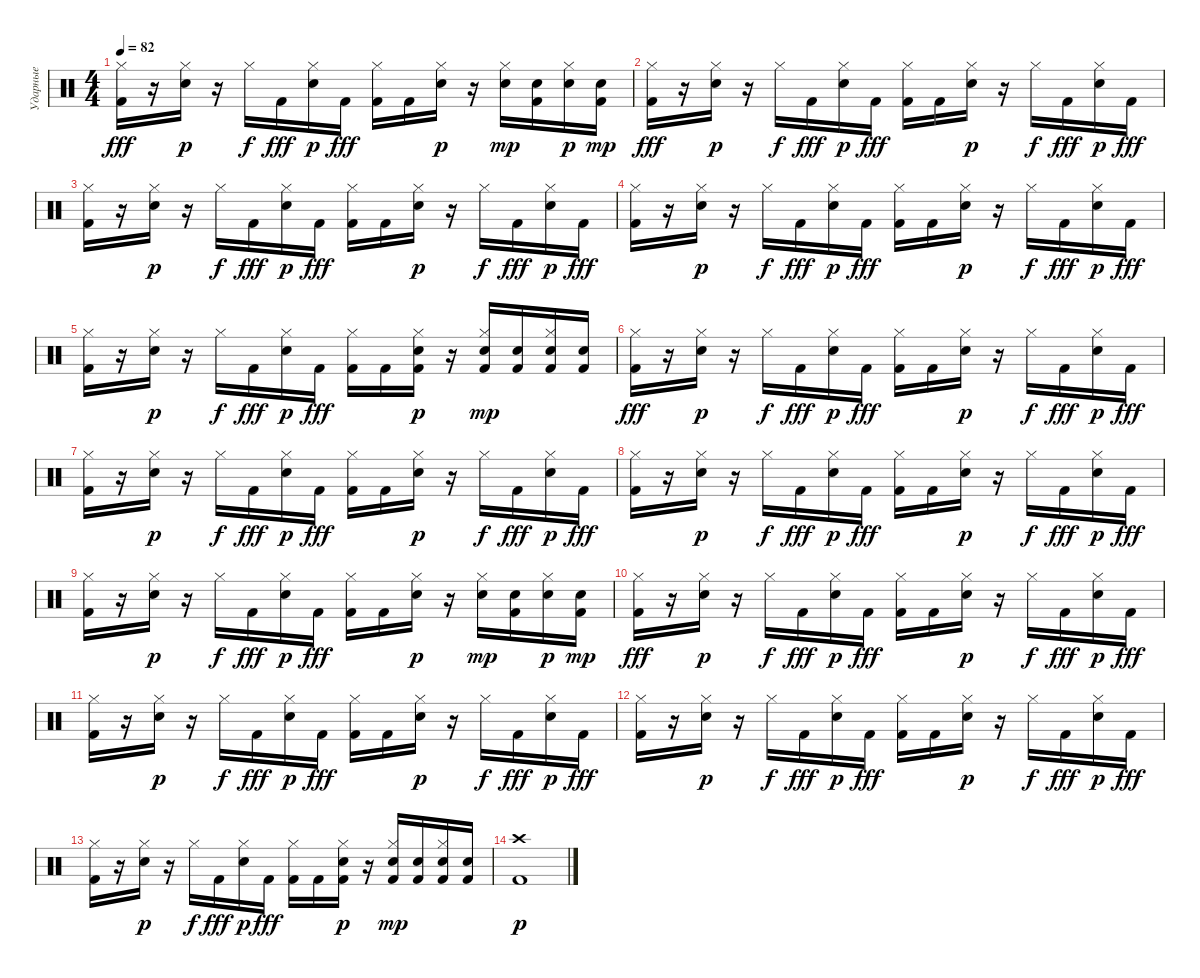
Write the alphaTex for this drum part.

\track ("Ударные" "Ударные") {instrument percussion}
\staff {score}
\articulation defaults
\ts (4 4)
\tempo 82
\clef neutral
\ks c
("Kick (hit) 2" "Hi-Hat (closed)").16{dy fff} r.16 ("Hi-Hat (closed)" "Electric Snare (hit)").16{dy p} r.16 "Hi-Hat (closed)".16{dy f} "Kick (hit) 2".16{dy fff} ("Hi-Hat (closed)" "Electric Snare (hit)").16{dy p} "Kick (hit) 2".16{dy fff} ("Kick (hit) 2" "Hi-Hat (closed)").16 "Kick (hit) 2".16 ("Hi-Hat (closed)" "Electric Snare (hit)").16{dy p} r.16 ("Hi-Hat (closed)" "Electric Snare (hit)").16{dy mp} ("Kick (hit) 2" "Electric Snare (hit)").16 ("Hi-Hat (closed)" "Electric Snare (hit)").16{dy p} ("Kick (hit) 2" "Electric Snare (hit)").16{dy mp} |
("Kick (hit) 2" "Hi-Hat (closed)").16{dy fff} r.16 ("Hi-Hat (closed)" "Electric Snare (hit)").16{dy p} r.16 "Hi-Hat (closed)".16{dy f} "Kick (hit) 2".16{dy fff} ("Hi-Hat (closed)" "Electric Snare (hit)").16{dy p} "Kick (hit) 2".16{dy fff} ("Kick (hit) 2" "Hi-Hat (closed)").16 "Kick (hit) 2".16 ("Hi-Hat (closed)" "Electric Snare (hit)").16{dy p} r.16 "Hi-Hat (closed)".16{dy f} "Kick (hit) 2".16{dy fff} ("Hi-Hat (closed)" "Electric Snare (hit)").16{dy p} "Kick (hit) 2".16{dy fff} |
("Kick (hit) 2" "Hi-Hat (closed)").16 r.16 ("Hi-Hat (closed)" "Electric Snare (hit)").16{dy p} r.16 "Hi-Hat (closed)".16{dy f} "Kick (hit) 2".16{dy fff} ("Hi-Hat (closed)" "Electric Snare (hit)").16{dy p} "Kick (hit) 2".16{dy fff} ("Kick (hit) 2" "Hi-Hat (closed)").16 "Kick (hit) 2".16 ("Hi-Hat (closed)" "Electric Snare (hit)").16{dy p} r.16 "Hi-Hat (closed)".16{dy f} "Kick (hit) 2".16{dy fff} ("Hi-Hat (closed)" "Electric Snare (hit)").16{dy p} "Kick (hit) 2".16{dy fff} |
("Kick (hit) 2" "Hi-Hat (closed)").16 r.16 ("Hi-Hat (closed)" "Electric Snare (hit)").16{dy p} r.16 "Hi-Hat (closed)".16{dy f} "Kick (hit) 2".16{dy fff} ("Hi-Hat (closed)" "Electric Snare (hit)").16{dy p} "Kick (hit) 2".16{dy fff} ("Kick (hit) 2" "Hi-Hat (closed)").16 "Kick (hit) 2".16 ("Hi-Hat (closed)" "Electric Snare (hit)").16{dy p} r.16 "Hi-Hat (closed)".16{dy f} "Kick (hit) 2".16{dy fff} ("Hi-Hat (closed)" "Electric Snare (hit)").16{dy p} "Kick (hit) 2".16{dy fff} |
("Kick (hit) 2" "Hi-Hat (closed)").16 r.16 ("Hi-Hat (closed)" "Electric Snare (hit)").16{dy p} r.16 "Hi-Hat (closed)".16{dy f} "Kick (hit) 2".16{dy fff} ("Hi-Hat (closed)" "Electric Snare (hit)").16{dy p} "Kick (hit) 2".16{dy fff} ("Kick (hit) 2" "Hi-Hat (closed)").16 "Kick (hit) 2".16 ("Kick (hit) 2" "Hi-Hat (closed)" "Electric Snare (hit)").16{dy p} r.16 ("Kick (hit) 2" "Hi-Hat (closed)" "Electric Snare (hit)").16{dy mp} ("Kick (hit) 2" "Electric Snare (hit)").16 ("Kick (hit) 2" "Hi-Hat (closed)" "Electric Snare (hit)").16 ("Kick (hit) 2" "Electric Snare (hit)").16 |
("Kick (hit) 2" "Hi-Hat (closed)").16{dy fff} r.16 ("Hi-Hat (closed)" "Electric Snare (hit)").16{dy p} r.16 "Hi-Hat (closed)".16{dy f} "Kick (hit) 2".16{dy fff} ("Hi-Hat (closed)" "Electric Snare (hit)").16{dy p} "Kick (hit) 2".16{dy fff} ("Kick (hit) 2" "Hi-Hat (closed)").16 "Kick (hit) 2".16 ("Hi-Hat (closed)" "Electric Snare (hit)").16{dy p} r.16 "Hi-Hat (closed)".16{dy f} "Kick (hit) 2".16{dy fff} ("Hi-Hat (closed)" "Electric Snare (hit)").16{dy p} "Kick (hit) 2".16{dy fff} |
("Kick (hit) 2" "Hi-Hat (closed)").16 r.16 ("Hi-Hat (closed)" "Electric Snare (hit)").16{dy p} r.16 "Hi-Hat (closed)".16{dy f} "Kick (hit) 2".16{dy fff} ("Hi-Hat (closed)" "Electric Snare (hit)").16{dy p} "Kick (hit) 2".16{dy fff} ("Kick (hit) 2" "Hi-Hat (closed)").16 "Kick (hit) 2".16 ("Hi-Hat (closed)" "Electric Snare (hit)").16{dy p} r.16 "Hi-Hat (closed)".16{dy f} "Kick (hit) 2".16{dy fff} ("Hi-Hat (closed)" "Electric Snare (hit)").16{dy p} "Kick (hit) 2".16{dy fff} |
("Kick (hit) 2" "Hi-Hat (closed)").16 r.16 ("Hi-Hat (closed)" "Electric Snare (hit)").16{dy p} r.16 "Hi-Hat (closed)".16{dy f} "Kick (hit) 2".16{dy fff} ("Hi-Hat (closed)" "Electric Snare (hit)").16{dy p} "Kick (hit) 2".16{dy fff} ("Kick (hit) 2" "Hi-Hat (closed)").16 "Kick (hit) 2".16 ("Hi-Hat (closed)" "Electric Snare (hit)").16{dy p} r.16 "Hi-Hat (closed)".16{dy f} "Kick (hit) 2".16{dy fff} ("Hi-Hat (closed)" "Electric Snare (hit)").16{dy p} "Kick (hit) 2".16{dy fff} |
("Kick (hit) 2" "Hi-Hat (closed)").16 r.16 ("Hi-Hat (closed)" "Electric Snare (hit)").16{dy p} r.16 "Hi-Hat (closed)".16{dy f} "Kick (hit) 2".16{dy fff} ("Hi-Hat (closed)" "Electric Snare (hit)").16{dy p} "Kick (hit) 2".16{dy fff} ("Kick (hit) 2" "Hi-Hat (closed)").16 "Kick (hit) 2".16 ("Hi-Hat (closed)" "Electric Snare (hit)").16{dy p} r.16 ("Hi-Hat (closed)" "Electric Snare (hit)").16{dy mp} ("Kick (hit) 2" "Electric Snare (hit)").16 ("Hi-Hat (closed)" "Electric Snare (hit)").16{dy p} ("Kick (hit) 2" "Electric Snare (hit)").16{dy mp} |
("Kick (hit) 2" "Hi-Hat (closed)").16{dy fff} r.16 ("Hi-Hat (closed)" "Electric Snare (hit)").16{dy p} r.16 "Hi-Hat (closed)".16{dy f} "Kick (hit) 2".16{dy fff} ("Hi-Hat (closed)" "Electric Snare (hit)").16{dy p} "Kick (hit) 2".16{dy fff} ("Kick (hit) 2" "Hi-Hat (closed)").16 "Kick (hit) 2".16 ("Hi-Hat (closed)" "Electric Snare (hit)").16{dy p} r.16 "Hi-Hat (closed)".16{dy f} "Kick (hit) 2".16{dy fff} ("Hi-Hat (closed)" "Electric Snare (hit)").16{dy p} "Kick (hit) 2".16{dy fff} |
("Kick (hit) 2" "Hi-Hat (closed)").16 r.16 ("Hi-Hat (closed)" "Electric Snare (hit)").16{dy p} r.16 "Hi-Hat (closed)".16{dy f} "Kick (hit) 2".16{dy fff} ("Hi-Hat (closed)" "Electric Snare (hit)").16{dy p} "Kick (hit) 2".16{dy fff} ("Kick (hit) 2" "Hi-Hat (closed)").16 "Kick (hit) 2".16 ("Hi-Hat (closed)" "Electric Snare (hit)").16{dy p} r.16 "Hi-Hat (closed)".16{dy f} "Kick (hit) 2".16{dy fff} ("Hi-Hat (closed)" "Electric Snare (hit)").16{dy p} "Kick (hit) 2".16{dy fff} |
("Kick (hit) 2" "Hi-Hat (closed)").16 r.16 ("Hi-Hat (closed)" "Electric Snare (hit)").16{dy p} r.16 "Hi-Hat (closed)".16{dy f} "Kick (hit) 2".16{dy fff} ("Hi-Hat (closed)" "Electric Snare (hit)").16{dy p} "Kick (hit) 2".16{dy fff} ("Kick (hit) 2" "Hi-Hat (closed)").16 "Kick (hit) 2".16 ("Hi-Hat (closed)" "Electric Snare (hit)").16{dy p} r.16 "Hi-Hat (closed)".16{dy f} "Kick (hit) 2".16{dy fff} ("Hi-Hat (closed)" "Electric Snare (hit)").16{dy p} "Kick (hit) 2".16{dy fff} |
("Kick (hit) 2" "Hi-Hat (closed)").16 r.16 ("Hi-Hat (closed)" "Electric Snare (hit)").16{dy p} r.16 "Hi-Hat (closed)".16{dy f} "Kick (hit) 2".16{dy fff} ("Hi-Hat (closed)" "Electric Snare (hit)").16{dy p} "Kick (hit) 2".16{dy fff} ("Kick (hit) 2" "Hi-Hat (closed)").16 "Kick (hit) 2".16 ("Kick (hit) 2" "Hi-Hat (closed)" "Electric Snare (hit)").16{dy p} r.16 ("Kick (hit) 2" "Hi-Hat (closed)" "Electric Snare (hit)").16{dy mp} ("Kick (hit) 2" "Electric Snare (hit)").16 ("Kick (hit) 2" "Hi-Hat (closed)" "Electric Snare (hit)").16 ("Kick (hit) 2" "Electric Snare (hit)").16 |
("Crash high (hit)" "Kick (hit) 2").1{dy p}
